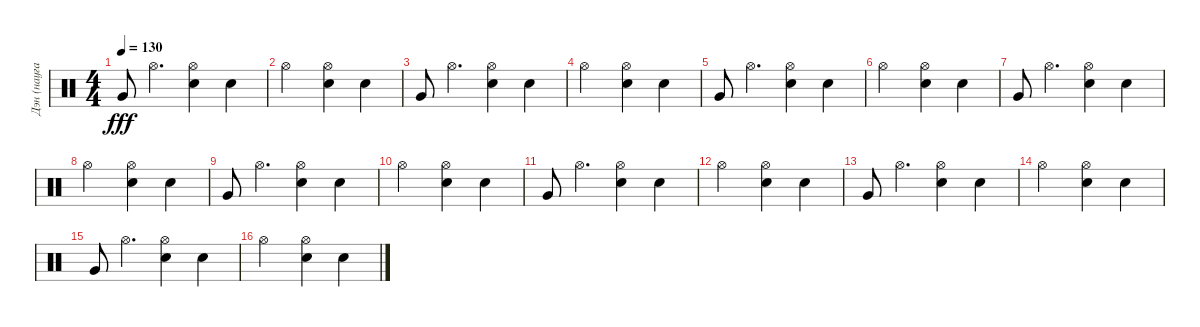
\track ("Дэн (наугад))" "Дэн (науга") {instrument percussion}
\staff {score}
\articulation defaults
\ts (4 4)
\tempo 130
\clef neutral
\ks c "Very Low Tom (hit)".8{dy fff} "Hi-Hat (open)".4{d}
("Hi-Hat (open)" "Snare (hit) 2").4 "Snare (hit) 2".4 |
"Hi-Hat (open)".2 ("Hi-Hat (open)" "Snare (hit) 2").4 "Snare (hit) 2".4 |
"Very Low Tom (hit)".8 "Hi-Hat (open)".4{d} ("Hi-Hat (open)" "Snare (hit) 2").4 "Snare (hit) 2".4 |
"Hi-Hat (open)".2 ("Hi-Hat (open)" "Snare (hit) 2").4 "Snare (hit) 2".4 |
"Very Low Tom (hit)".8 "Hi-Hat (open)".4{d} ("Hi-Hat (open)" "Snare (hit) 2").4 "Snare (hit) 2".4 |
"Hi-Hat (open)".2 ("Hi-Hat (open)" "Snare (hit) 2").4 "Snare (hit) 2".4 |
"Very Low Tom (hit)".8 "Hi-Hat (open)".4{d} ("Hi-Hat (open)" "Snare (hit) 2").4 "Snare (hit) 2".4 |
"Hi-Hat (open)".2 ("Hi-Hat (open)" "Snare (hit) 2").4 "Snare (hit) 2".4 |
"Very Low Tom (hit)".8 "Hi-Hat (open)".4{d} ("Hi-Hat (open)" "Snare (hit) 2").4 "Snare (hit) 2".4 |
"Hi-Hat (open)".2 ("Hi-Hat (open)" "Snare (hit) 2").4 "Snare (hit) 2".4 |
"Very Low Tom (hit)".8 "Hi-Hat (open)".4{d} ("Hi-Hat (open)" "Snare (hit) 2").4 "Snare (hit) 2".4 |
"Hi-Hat (open)".2 ("Hi-Hat (open)" "Snare (hit) 2").4 "Snare (hit) 2".4 |
"Very Low Tom (hit)".8 "Hi-Hat (open)".4{d} ("Hi-Hat (open)" "Snare (hit) 2").4 "Snare (hit) 2".4 |
"Hi-Hat (open)".2 ("Hi-Hat (open)" "Snare (hit) 2").4 "Snare (hit) 2".4 |
"Very Low Tom (hit)".8 "Hi-Hat (open)".4{d} ("Hi-Hat (open)" "Snare (hit) 2").4 "Snare (hit) 2".4 |
"Hi-Hat (open)".2 ("Hi-Hat (open)" "Snare (hit) 2").4 "Snare (hit) 2".4
